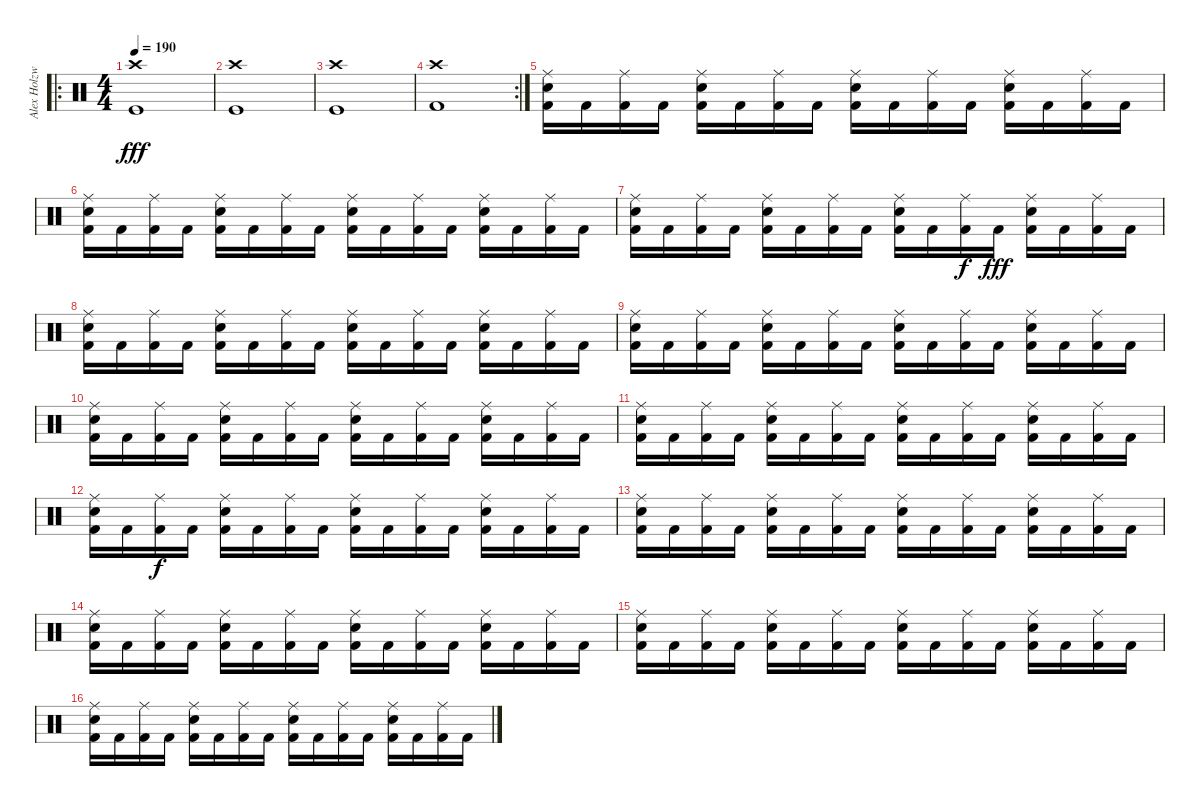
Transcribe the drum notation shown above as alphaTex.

\track ("Alex Holzwarth" "Alex Holzw") {instrument percussion}
\staff {score}
\articulation defaults
\ro
\ts (4 4)
\tempo 190
\clef neutral
\ks c
("Kick (hit)" "Crash high (hit)").1{dy fff} |
("Kick (hit)" "Crash high (hit)").1 |
("Kick (hit)" "Crash high (hit)").1 |
\rc 2
("Kick (hit) 2" "Crash high (hit)").1 |
\section ("" "")
("Kick (hit) 2" "Electric Snare (hit)" "Ride (middle)").16 "Kick (hit) 2".16 ("Kick (hit) 2" "Ride (middle)").16 "Kick (hit) 2".16 ("Kick (hit) 2" "Electric Snare (hit)" "Ride (middle)").16 "Kick (hit) 2".16 ("Kick (hit) 2" "Ride (middle)").16 "Kick (hit) 2".16 ("Kick (hit) 2" "Electric Snare (hit)" "Ride (middle)").16 "Kick (hit) 2".16 ("Kick (hit) 2" "Ride (middle)").16 "Kick (hit) 2".16 ("Kick (hit) 2" "Electric Snare (hit)" "Ride (middle)").16 "Kick (hit) 2".16 ("Kick (hit) 2" "Ride (middle)").16 "Kick (hit) 2".16 |
("Kick (hit) 2" "Electric Snare (hit)" "Ride (middle)").16 "Kick (hit) 2".16 ("Kick (hit) 2" "Ride (middle)").16 "Kick (hit) 2".16 ("Kick (hit) 2" "Electric Snare (hit)" "Ride (middle)").16 "Kick (hit) 2".16 ("Kick (hit) 2" "Ride (middle)").16 "Kick (hit) 2".16 ("Kick (hit) 2" "Electric Snare (hit)" "Ride (middle)").16 "Kick (hit) 2".16 ("Kick (hit) 2" "Ride (middle)").16 "Kick (hit) 2".16 ("Kick (hit) 2" "Electric Snare (hit)" "Ride (middle)").16 "Kick (hit) 2".16 ("Kick (hit) 2" "Ride (middle)").16 "Kick (hit) 2".16 |
("Kick (hit) 2" "Electric Snare (hit)" "Ride (middle)").16 "Kick (hit) 2".16 ("Kick (hit) 2" "Ride (middle)").16 "Kick (hit) 2".16 ("Kick (hit) 2" "Electric Snare (hit)" "Ride (middle)").16 "Kick (hit) 2".16 ("Kick (hit) 2" "Ride (middle)").16 "Kick (hit) 2".16 ("Kick (hit) 2" "Electric Snare (hit)" "Ride (middle)").16 "Kick (hit) 2".16 ("Kick (hit) 2" "Ride (middle)").16{dy f} "Kick (hit) 2".16{dy fff} ("Kick (hit) 2" "Electric Snare (hit)" "Ride (middle)").16 "Kick (hit) 2".16 ("Kick (hit) 2" "Ride (middle)").16 "Kick (hit) 2".16 |
("Kick (hit) 2" "Electric Snare (hit)" "Ride (middle)").16 "Kick (hit) 2".16 ("Kick (hit) 2" "Ride (middle)").16 "Kick (hit) 2".16 ("Kick (hit) 2" "Electric Snare (hit)" "Ride (middle)").16 "Kick (hit) 2".16 ("Kick (hit) 2" "Ride (middle)").16 "Kick (hit) 2".16 ("Kick (hit) 2" "Electric Snare (hit)" "Ride (middle)").16 "Kick (hit) 2".16 ("Kick (hit) 2" "Ride (middle)").16 "Kick (hit) 2".16 ("Kick (hit) 2" "Electric Snare (hit)" "Ride (middle)").16 "Kick (hit) 2".16 ("Kick (hit) 2" "Ride (middle)").16 "Kick (hit) 2".16 |
("Kick (hit) 2" "Electric Snare (hit)" "Ride (middle)").16 "Kick (hit) 2".16 ("Kick (hit) 2" "Ride (middle)").16 "Kick (hit) 2".16 ("Kick (hit) 2" "Electric Snare (hit)" "Ride (middle)").16 "Kick (hit) 2".16 ("Kick (hit) 2" "Ride (middle)").16 "Kick (hit) 2".16 ("Kick (hit) 2" "Electric Snare (hit)" "Ride (middle)").16 "Kick (hit) 2".16 ("Kick (hit) 2" "Ride (middle)").16 "Kick (hit) 2".16 ("Kick (hit) 2" "Electric Snare (hit)" "Ride (middle)").16 "Kick (hit) 2".16 ("Kick (hit) 2" "Ride (middle)").16 "Kick (hit) 2".16 |
("Kick (hit) 2" "Electric Snare (hit)" "Ride (middle)").16 "Kick (hit) 2".16 ("Kick (hit) 2" "Ride (middle)").16 "Kick (hit) 2".16 ("Kick (hit) 2" "Electric Snare (hit)" "Ride (middle)").16 "Kick (hit) 2".16 ("Kick (hit) 2" "Ride (middle)").16 "Kick (hit) 2".16 ("Kick (hit) 2" "Electric Snare (hit)" "Ride (middle)").16 "Kick (hit) 2".16 ("Kick (hit) 2" "Ride (middle)").16 "Kick (hit) 2".16 ("Kick (hit) 2" "Electric Snare (hit)" "Ride (middle)").16 "Kick (hit) 2".16 ("Kick (hit) 2" "Ride (middle)").16 "Kick (hit) 2".16 |
("Kick (hit) 2" "Electric Snare (hit)" "Ride (middle)").16 "Kick (hit) 2".16 ("Kick (hit) 2" "Ride (middle)").16 "Kick (hit) 2".16 ("Kick (hit) 2" "Electric Snare (hit)" "Ride (middle)").16 "Kick (hit) 2".16 ("Kick (hit) 2" "Ride (middle)").16 "Kick (hit) 2".16 ("Kick (hit) 2" "Electric Snare (hit)" "Ride (middle)").16 "Kick (hit) 2".16 ("Kick (hit) 2" "Ride (middle)").16 "Kick (hit) 2".16 ("Kick (hit) 2" "Electric Snare (hit)" "Ride (middle)").16 "Kick (hit) 2".16 ("Kick (hit) 2" "Ride (middle)").16 "Kick (hit) 2".16 |
("Kick (hit) 2" "Electric Snare (hit)" "Ride (middle)").16 "Kick (hit) 2".16 ("Kick (hit) 2" "Ride (middle)").16{dy f} "Kick (hit) 2".16 ("Kick (hit) 2" "Electric Snare (hit)" "Ride (middle)").16 "Kick (hit) 2".16 ("Kick (hit) 2" "Ride (middle)").16 "Kick (hit) 2".16 ("Kick (hit) 2" "Electric Snare (hit)" "Ride (middle)").16 "Kick (hit) 2".16 ("Kick (hit) 2" "Ride (middle)").16 "Kick (hit) 2".16 ("Kick (hit) 2" "Electric Snare (hit)" "Ride (middle)").16 "Kick (hit) 2".16 ("Kick (hit) 2" "Ride (middle)").16 "Kick (hit) 2".16 |
("Kick (hit) 2" "Electric Snare (hit)" "Ride (middle)").16 "Kick (hit) 2".16 ("Kick (hit) 2" "Ride (middle)").16 "Kick (hit) 2".16 ("Kick (hit) 2" "Electric Snare (hit)" "Ride (middle)").16 "Kick (hit) 2".16 ("Kick (hit) 2" "Ride (middle)").16 "Kick (hit) 2".16 ("Kick (hit) 2" "Electric Snare (hit)" "Ride (middle)").16 "Kick (hit) 2".16 ("Kick (hit) 2" "Ride (middle)").16 "Kick (hit) 2".16 ("Kick (hit) 2" "Electric Snare (hit)" "Ride (middle)").16 "Kick (hit) 2".16 ("Kick (hit) 2" "Ride (middle)").16 "Kick (hit) 2".16 |
("Kick (hit) 2" "Electric Snare (hit)" "Ride (middle)").16 "Kick (hit) 2".16 ("Kick (hit) 2" "Ride (middle)").16 "Kick (hit) 2".16 ("Kick (hit) 2" "Electric Snare (hit)" "Ride (middle)").16 "Kick (hit) 2".16 ("Kick (hit) 2" "Ride (middle)").16 "Kick (hit) 2".16 ("Kick (hit) 2" "Electric Snare (hit)" "Ride (middle)").16 "Kick (hit) 2".16 ("Kick (hit) 2" "Ride (middle)").16 "Kick (hit) 2".16 ("Kick (hit) 2" "Electric Snare (hit)" "Ride (middle)").16 "Kick (hit) 2".16 ("Kick (hit) 2" "Ride (middle)").16 "Kick (hit) 2".16 |
("Kick (hit) 2" "Electric Snare (hit)" "Ride (middle)").16 "Kick (hit) 2".16 ("Kick (hit) 2" "Ride (middle)").16 "Kick (hit) 2".16 ("Kick (hit) 2" "Electric Snare (hit)" "Ride (middle)").16 "Kick (hit) 2".16 ("Kick (hit) 2" "Ride (middle)").16 "Kick (hit) 2".16 ("Kick (hit) 2" "Electric Snare (hit)" "Ride (middle)").16 "Kick (hit) 2".16 ("Kick (hit) 2" "Ride (middle)").16 "Kick (hit) 2".16 ("Kick (hit) 2" "Electric Snare (hit)" "Ride (middle)").16 "Kick (hit) 2".16 ("Kick (hit) 2" "Ride (middle)").16 "Kick (hit) 2".16 |
("Kick (hit) 2" "Electric Snare (hit)" "Ride (middle)").16 "Kick (hit) 2".16 ("Kick (hit) 2" "Ride (middle)").16 "Kick (hit) 2".16 ("Kick (hit) 2" "Electric Snare (hit)" "Ride (middle)").16 "Kick (hit) 2".16 ("Kick (hit) 2" "Ride (middle)").16 "Kick (hit) 2".16 ("Kick (hit) 2" "Electric Snare (hit)" "Ride (middle)").16 "Kick (hit) 2".16 ("Kick (hit) 2" "Ride (middle)").16 "Kick (hit) 2".16 ("Kick (hit) 2" "Electric Snare (hit)" "Ride (middle)").16 "Kick (hit) 2".16 ("Kick (hit) 2" "Ride (middle)").16 "Kick (hit) 2".16
